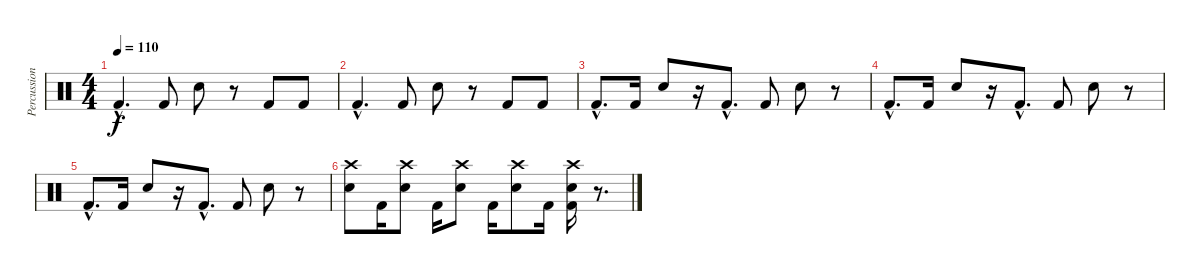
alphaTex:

\track ("Percussions" "Percussion") {instrument percussion}
\staff {score}
\articulation defaults
\ts (4 4)
\tempo 110
\clef neutral
\ks c "Kick (hit) 2"{hac}.4{d dy f} "Kick (hit) 2".8 "Electric Snare (hit)".8
r.8 "Kick (hit) 2".8 "Kick (hit) 2".8 |
"Kick (hit) 2"{hac}.4{d} "Kick (hit) 2".8 "Electric Snare (hit)".8 r.8 "Kick (hit) 2".8 "Kick (hit) 2".8 |
"Kick (hit) 2"{hac}.8{d} "Kick (hit) 2".16 "Electric Snare (hit)".8 r.16 "Kick (hit) 2"{hac}.8{d} "Kick (hit) 2".8 "Electric Snare (hit)".8 r.8 |
"Kick (hit) 2"{hac}.8{d} "Kick (hit) 2".16 "Electric Snare (hit)".8 r.16 "Kick (hit) 2"{hac}.8{d} "Kick (hit) 2".8 "Electric Snare (hit)".8 r.8 |
"Kick (hit) 2"{hac}.8{d} "Kick (hit) 2".16 "Electric Snare (hit)".8 r.16 "Kick (hit) 2"{hac}.8{d} "Kick (hit) 2".8 "Electric Snare (hit)".8 r.8 |
("Electric Snare (hit)" "Crash high (hit)").8 "Kick (hit) 2".16 ("Electric Snare (hit)" "Crash high (hit)").8 "Kick (hit) 2".16 ("Electric Snare (hit)" "Crash high (hit)").8 "Kick (hit) 2".16 ("Electric Snare (hit)" "Crash high (hit)").8 "Kick (hit) 2".16 ("Kick (hit) 2" "Electric Snare (hit)" "Crash high (hit)").16 r.8{d}
